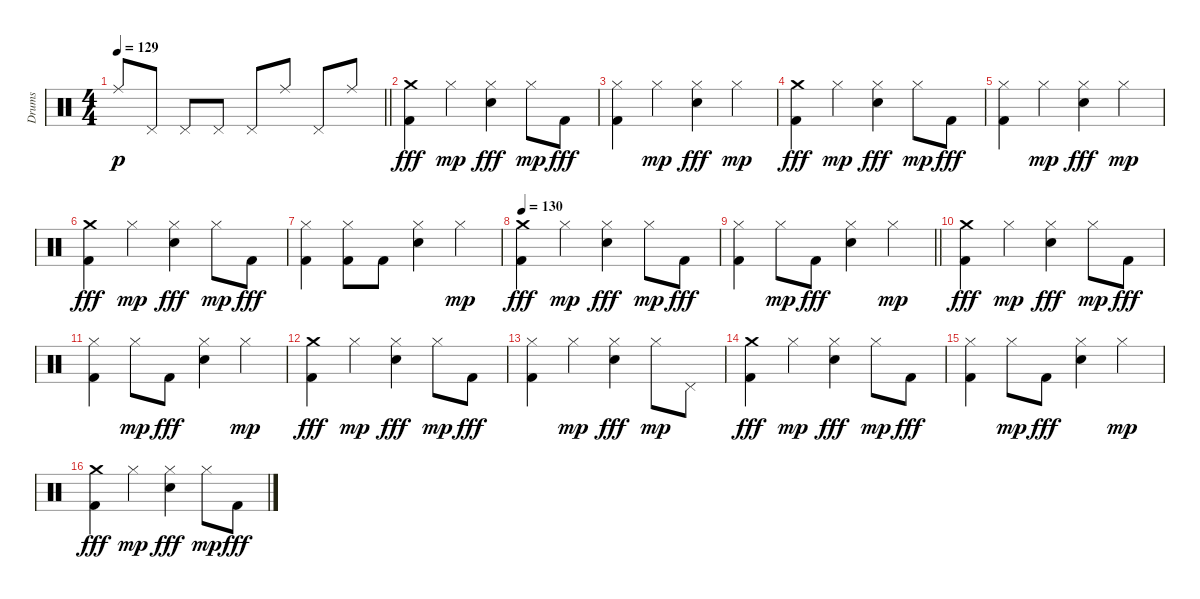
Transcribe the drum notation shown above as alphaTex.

\track ("Drums" "Drums") {instrument percussion}
\staff {score}
\articulation defaults
\ts (4 4)
\tempo 129
\clef neutral
\barLineRight lightlight
\ks c "Ride (middle)".8{dy p} "Pedal Hi-Hat (hit)".8 "Pedal Hi-Hat (hit)".8 "Pedal Hi-Hat (hit)".8 "Pedal Hi-Hat (hit)".8 "Ride (middle)".8 "Pedal Hi-Hat (hit)".8 "Ride (middle)".8
|
("Crash medium (hit)" "Kick (hit) 2").4{dy fff} "Hi-Hat (closed)".4{dy mp} ("Hi-Hat (closed)" "Electric Snare (hit)").4{dy fff} "Hi-Hat (closed)".8{dy mp} "Kick (hit) 2".8{dy fff} |
("Hi-Hat (closed)" "Kick (hit) 2").4 "Hi-Hat (closed)".4{dy mp} ("Hi-Hat (closed)" "Electric Snare (hit)").4{dy fff} "Hi-Hat (closed)".4{dy mp} |
("Crash medium (hit)" "Kick (hit) 2").4{dy fff} "Hi-Hat (closed)".4{dy mp} ("Hi-Hat (closed)" "Electric Snare (hit)").4{dy fff} "Hi-Hat (closed)".8{dy mp} "Kick (hit) 2".8{dy fff} |
("Hi-Hat (closed)" "Kick (hit) 2").4 "Hi-Hat (closed)".4{dy mp} ("Hi-Hat (closed)" "Electric Snare (hit)").4{dy fff} "Hi-Hat (closed)".4{dy mp} |
("Crash medium (hit)" "Kick (hit) 2").4{dy fff} "Hi-Hat (closed)".4{dy mp} ("Hi-Hat (closed)" "Electric Snare (hit)").4{dy fff} "Hi-Hat (closed)".8{dy mp} "Kick (hit) 2".8{dy fff} |
("Hi-Hat (closed)" "Kick (hit) 2").4 ("Hi-Hat (closed)" "Kick (hit) 2").8 "Kick (hit) 2".8 ("Hi-Hat (closed)" "Electric Snare (hit)").4 "Hi-Hat (closed)".4{dy mp} |
\tempo 130
("Crash medium (hit)" "Kick (hit) 2").4{dy fff} "Hi-Hat (closed)".4{dy mp} ("Hi-Hat (closed)" "Electric Snare (hit)").4{dy fff} "Hi-Hat (closed)".8{dy mp} "Kick (hit) 2".8{dy fff} |
\barLineRight lightlight
("Hi-Hat (closed)" "Kick (hit) 2").4 "Hi-Hat (closed)".8{dy mp} "Kick (hit) 2".8{dy fff} ("Hi-Hat (closed)" "Electric Snare (hit)").4 "Hi-Hat (closed)".4{dy mp} |
("Crash medium (hit)" "Kick (hit) 2").4{dy fff} "Hi-Hat (closed)".4{dy mp} ("Hi-Hat (closed)" "Electric Snare (hit)").4{dy fff} "Hi-Hat (closed)".8{dy mp} "Kick (hit) 2".8{dy fff} |
("Hi-Hat (closed)" "Kick (hit) 2").4 "Hi-Hat (closed)".8{dy mp} "Kick (hit) 2".8{dy fff} ("Hi-Hat (closed)" "Electric Snare (hit)").4 "Hi-Hat (closed)".4{dy mp} |
("Crash medium (hit)" "Kick (hit) 2").4{dy fff} "Hi-Hat (closed)".4{dy mp} ("Hi-Hat (closed)" "Electric Snare (hit)").4{dy fff} "Hi-Hat (closed)".8{dy mp} "Kick (hit) 2".8{dy fff} |
("Hi-Hat (closed)" "Kick (hit) 2").4 "Hi-Hat (closed)".4{dy mp} ("Hi-Hat (closed)" "Electric Snare (hit)").4{dy fff} "Hi-Hat (closed)".8{dy mp} "Pedal Hi-Hat (hit)".8 |
("Crash medium (hit)" "Kick (hit) 2").4{dy fff} "Hi-Hat (closed)".4{dy mp} ("Hi-Hat (closed)" "Electric Snare (hit)").4{dy fff} "Hi-Hat (closed)".8{dy mp} "Kick (hit) 2".8{dy fff} |
("Hi-Hat (closed)" "Kick (hit) 2").4 "Hi-Hat (closed)".8{dy mp} "Kick (hit) 2".8{dy fff} ("Hi-Hat (closed)" "Electric Snare (hit)").4 "Hi-Hat (closed)".4{dy mp} |
("Crash medium (hit)" "Kick (hit) 2").4{dy fff} "Hi-Hat (closed)".4{dy mp} ("Hi-Hat (closed)" "Electric Snare (hit)").4{dy fff} "Hi-Hat (closed)".8{dy mp} "Kick (hit) 2".8{dy fff}
